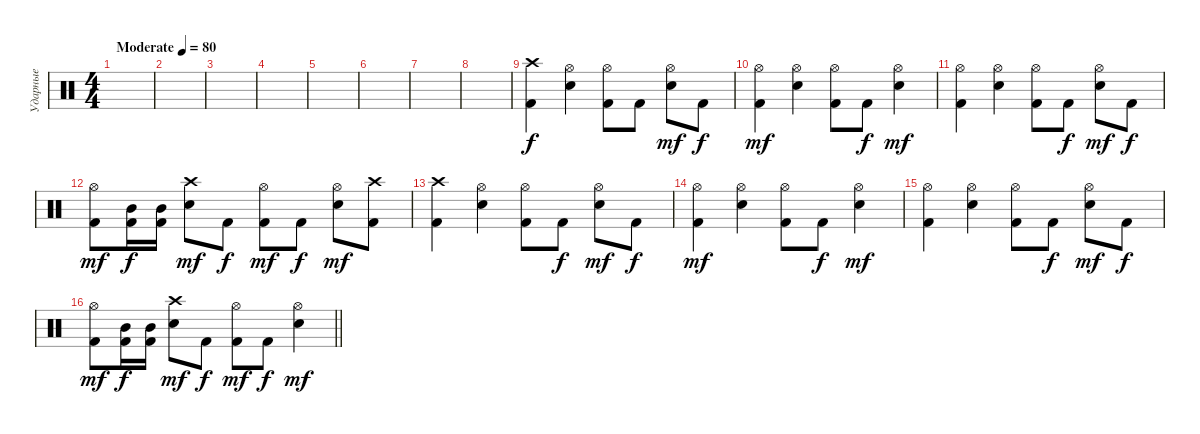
\track ("Ударные" "Ударные") {instrument percussion}
\staff {score}
\articulation defaults
\ts (4 4)
\tempo (80 "Moderate")
\clef neutral
\ks c
|
|
|
|
|
|
|
|
("Kick (hit) 2" "Crash high (hit)").4 ("Snare (hit) 2" "Hi-Hat (open)").4 ("Kick (hit) 2" "Hi-Hat (open)").8 "Kick (hit) 2".8{dy f} ("Snare (hit) 2" "Hi-Hat (open)").8{dy mf} "Kick (hit) 2".8{dy f} |
("Kick (hit) 2" "Hi-Hat (open)").4{dy mf} ("Snare (hit) 2" "Hi-Hat (open)").4 ("Kick (hit) 2" "Hi-Hat (open)").8 "Kick (hit) 2".8{dy f} ("Snare (hit) 2" "Hi-Hat (open)").4{dy mf} |
("Kick (hit) 2" "Hi-Hat (open)").4 ("Snare (hit) 2" "Hi-Hat (open)").4 ("Kick (hit) 2" "Hi-Hat (open)").8 "Kick (hit) 2".8{dy f} ("Snare (hit) 2" "Hi-Hat (open)").8{dy mf} "Kick (hit) 2".8{dy f} |
("Kick (hit) 2" "Hi-Hat (open)").8{dy mf} ("Kick (hit) 2" "Mid Tom (hit)").16{dy f} ("Kick (hit) 2" "Mid Tom (hit)").16 ("Snare (hit) 2" "Crash high (hit)").8{dy mf} "Kick (hit) 2".8{dy f} ("Kick (hit) 2" "Hi-Hat (open)").8{dy mf} "Kick (hit) 2".8{dy f} ("Snare (hit) 2" "Hi-Hat (open)").8{dy mf} ("Kick (hit) 2" "Crash high (hit)").8 |
("Kick (hit) 2" "Crash high (hit)").4 ("Snare (hit) 2" "Hi-Hat (open)").4 ("Kick (hit) 2" "Hi-Hat (open)").8 "Kick (hit) 2".8{dy f} ("Snare (hit) 2" "Hi-Hat (open)").8{dy mf} "Kick (hit) 2".8{dy f} |
("Kick (hit) 2" "Hi-Hat (open)").4{dy mf} ("Snare (hit) 2" "Hi-Hat (open)").4 ("Kick (hit) 2" "Hi-Hat (open)").8 "Kick (hit) 2".8{dy f} ("Snare (hit) 2" "Hi-Hat (open)").4{dy mf} |
("Kick (hit) 2" "Hi-Hat (open)").4 ("Snare (hit) 2" "Hi-Hat (open)").4 ("Kick (hit) 2" "Hi-Hat (open)").8 "Kick (hit) 2".8{dy f} ("Snare (hit) 2" "Hi-Hat (open)").8{dy mf} "Kick (hit) 2".8{dy f} |
\barLineRight lightlight
("Kick (hit) 2" "Hi-Hat (open)").8{dy mf} ("Kick (hit) 2" "Mid Tom (hit)").16{dy f} ("Kick (hit) 2" "Mid Tom (hit)").16 ("Snare (hit) 2" "Crash high (hit)").8{dy mf} "Kick (hit) 2".8{dy f} ("Kick (hit) 2" "Hi-Hat (open)").8{dy mf} "Kick (hit) 2".8{dy f} ("Snare (hit) 2" "Hi-Hat (open)").4{dy mf}
